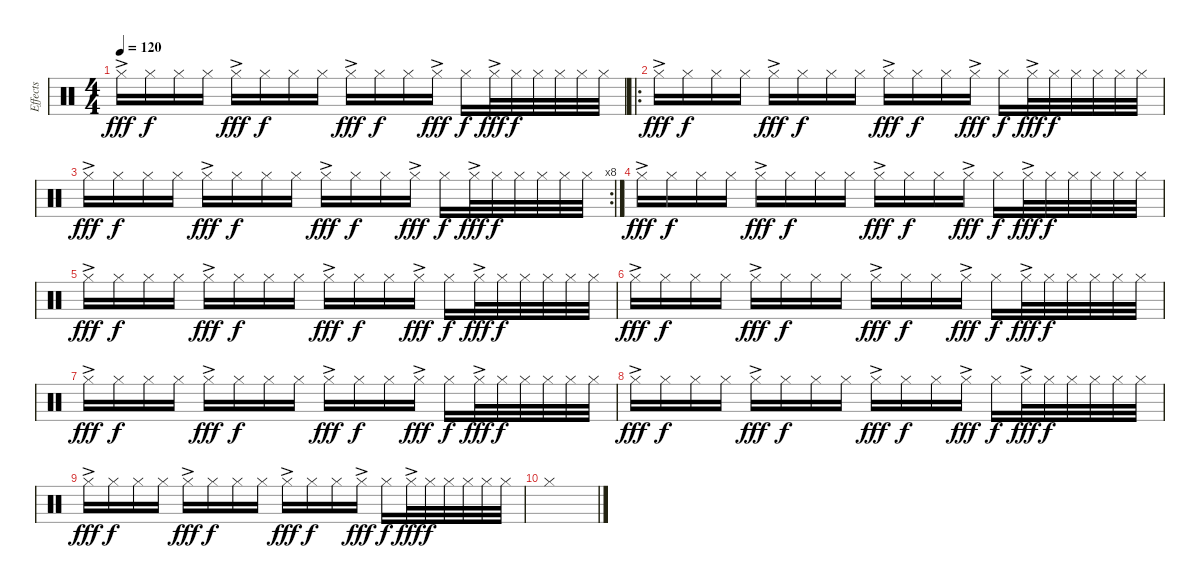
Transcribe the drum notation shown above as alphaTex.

\track ("Effects" "Effects") {instrument percussion}
\staff {score}
\articulation defaults
\ts (4 4)
\tempo 120
\clef neutral
\ks c "Hi-Hat (closed)"{ac}.16{dy fff} "Hi-Hat (closed)".16{dy f} "Hi-Hat (closed)".16 "Hi-Hat (closed)".16 "Hi-Hat (closed)"{ac}.16{dy fff} "Hi-Hat (closed)".16{dy f} "Hi-Hat (closed)".16 "Hi-Hat (closed)".16 "Hi-Hat (closed)"{ac}.16{dy fff} "Hi-Hat (closed)".16{dy f} "Hi-Hat (closed)".16 "Hi-Hat (closed)"{ac}.16{dy fff} "Hi-Hat (closed)".16{dy f} "Hi-Hat (closed)"{ac}.32{dy fff} "Hi-Hat (closed)".32{dy f} "Hi-Hat (closed)".32 "Hi-Hat (closed)".32 "Hi-Hat (closed)".32 "Hi-Hat (closed)".32
|
\ro "Hi-Hat (closed)"{ac}.16{dy fff} "Hi-Hat (closed)".16{dy f} "Hi-Hat (closed)".16 "Hi-Hat (closed)".16 "Hi-Hat (closed)"{ac}.16{dy fff} "Hi-Hat (closed)".16{dy f} "Hi-Hat (closed)".16 "Hi-Hat (closed)".16 "Hi-Hat (closed)"{ac}.16{dy fff} "Hi-Hat (closed)".16{dy f} "Hi-Hat (closed)".16 "Hi-Hat (closed)"{ac}.16{dy fff} "Hi-Hat (closed)".16{dy f} "Hi-Hat (closed)"{ac}.32{dy fff} "Hi-Hat (closed)".32{dy f} "Hi-Hat (closed)".32 "Hi-Hat (closed)".32 "Hi-Hat (closed)".32 "Hi-Hat (closed)".32
|
\rc 8 "Hi-Hat (closed)"{ac}.16{dy fff} "Hi-Hat (closed)".16{dy f} "Hi-Hat (closed)".16 "Hi-Hat (closed)".16 "Hi-Hat (closed)"{ac}.16{dy fff} "Hi-Hat (closed)".16{dy f} "Hi-Hat (closed)".16 "Hi-Hat (closed)".16 "Hi-Hat (closed)"{ac}.16{dy fff} "Hi-Hat (closed)".16{dy f} "Hi-Hat (closed)".16 "Hi-Hat (closed)"{ac}.16{dy fff} "Hi-Hat (closed)".16{dy f} "Hi-Hat (closed)"{ac}.32{dy fff} "Hi-Hat (closed)".32{dy f} "Hi-Hat (closed)".32 "Hi-Hat (closed)".32 "Hi-Hat (closed)".32 "Hi-Hat (closed)".32
|
"Hi-Hat (closed)"{ac}.16{dy fff} "Hi-Hat (closed)".16{dy f} "Hi-Hat (closed)".16 "Hi-Hat (closed)".16 "Hi-Hat (closed)"{ac}.16{dy fff} "Hi-Hat (closed)".16{dy f} "Hi-Hat (closed)".16 "Hi-Hat (closed)".16 "Hi-Hat (closed)"{ac}.16{dy fff} "Hi-Hat (closed)".16{dy f} "Hi-Hat (closed)".16 "Hi-Hat (closed)"{ac}.16{dy fff} "Hi-Hat (closed)".16{dy f} "Hi-Hat (closed)"{ac}.32{dy fff} "Hi-Hat (closed)".32{dy f} "Hi-Hat (closed)".32 "Hi-Hat (closed)".32 "Hi-Hat (closed)".32 "Hi-Hat (closed)".32 |
"Hi-Hat (closed)"{ac}.16{dy fff} "Hi-Hat (closed)".16{dy f} "Hi-Hat (closed)".16 "Hi-Hat (closed)".16 "Hi-Hat (closed)"{ac}.16{dy fff} "Hi-Hat (closed)".16{dy f} "Hi-Hat (closed)".16 "Hi-Hat (closed)".16 "Hi-Hat (closed)"{ac}.16{dy fff} "Hi-Hat (closed)".16{dy f} "Hi-Hat (closed)".16 "Hi-Hat (closed)"{ac}.16{dy fff} "Hi-Hat (closed)".16{dy f} "Hi-Hat (closed)"{ac}.32{dy fff} "Hi-Hat (closed)".32{dy f} "Hi-Hat (closed)".32 "Hi-Hat (closed)".32 "Hi-Hat (closed)".32 "Hi-Hat (closed)".32 |
"Hi-Hat (closed)"{ac}.16{dy fff} "Hi-Hat (closed)".16{dy f} "Hi-Hat (closed)".16 "Hi-Hat (closed)".16 "Hi-Hat (closed)"{ac}.16{dy fff} "Hi-Hat (closed)".16{dy f} "Hi-Hat (closed)".16 "Hi-Hat (closed)".16 "Hi-Hat (closed)"{ac}.16{dy fff} "Hi-Hat (closed)".16{dy f} "Hi-Hat (closed)".16 "Hi-Hat (closed)"{ac}.16{dy fff} "Hi-Hat (closed)".16{dy f} "Hi-Hat (closed)"{ac}.32{dy fff} "Hi-Hat (closed)".32{dy f} "Hi-Hat (closed)".32 "Hi-Hat (closed)".32 "Hi-Hat (closed)".32 "Hi-Hat (closed)".32 |
"Hi-Hat (closed)"{ac}.16{dy fff} "Hi-Hat (closed)".16{dy f} "Hi-Hat (closed)".16 "Hi-Hat (closed)".16 "Hi-Hat (closed)"{ac}.16{dy fff} "Hi-Hat (closed)".16{dy f} "Hi-Hat (closed)".16 "Hi-Hat (closed)".16 "Hi-Hat (closed)"{ac}.16{dy fff} "Hi-Hat (closed)".16{dy f} "Hi-Hat (closed)".16 "Hi-Hat (closed)"{ac}.16{dy fff} "Hi-Hat (closed)".16{dy f} "Hi-Hat (closed)"{ac}.32{dy fff} "Hi-Hat (closed)".32{dy f} "Hi-Hat (closed)".32 "Hi-Hat (closed)".32 "Hi-Hat (closed)".32 "Hi-Hat (closed)".32 |
"Hi-Hat (closed)"{ac}.16{dy fff} "Hi-Hat (closed)".16{dy f} "Hi-Hat (closed)".16 "Hi-Hat (closed)".16 "Hi-Hat (closed)"{ac}.16{dy fff} "Hi-Hat (closed)".16{dy f} "Hi-Hat (closed)".16 "Hi-Hat (closed)".16 "Hi-Hat (closed)"{ac}.16{dy fff} "Hi-Hat (closed)".16{dy f} "Hi-Hat (closed)".16 "Hi-Hat (closed)"{ac}.16{dy fff} "Hi-Hat (closed)".16{dy f} "Hi-Hat (closed)"{ac}.32{dy fff} "Hi-Hat (closed)".32{dy f} "Hi-Hat (closed)".32 "Hi-Hat (closed)".32 "Hi-Hat (closed)".32 "Hi-Hat (closed)".32 |
"Hi-Hat (closed)"{ac}.16{dy fff volume 0} "Hi-Hat (closed)".16{dy f} "Hi-Hat (closed)".16 "Hi-Hat (closed)".16 "Hi-Hat (closed)"{ac}.16{dy fff} "Hi-Hat (closed)".16{dy f} "Hi-Hat (closed)".16 "Hi-Hat (closed)".16 "Hi-Hat (closed)"{ac}.16{dy fff} "Hi-Hat (closed)".16{dy f} "Hi-Hat (closed)".16 "Hi-Hat (closed)"{ac}.16{dy fff} "Hi-Hat (closed)".16{dy f} "Hi-Hat (closed)"{ac}.32{dy fff} "Hi-Hat (closed)".32{dy f} "Hi-Hat (closed)".32 "Hi-Hat (closed)".32 "Hi-Hat (closed)".32 "Hi-Hat (closed)".32 |
"Hi-Hat (closed)".1
